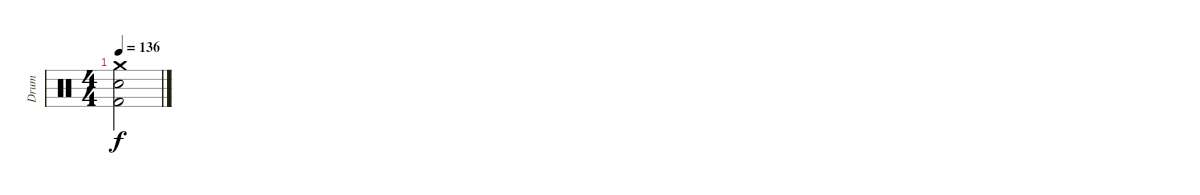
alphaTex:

\track ("Drum" "Drum") {instrument percussion}
\staff {score}
\articulation defaults
\ts (4 4)
\tempo 136
\clef neutral
\ks c
("Crash medium (hit)" "Electric Snare (hit)" "Kick (hit) 2").2{dy f}
